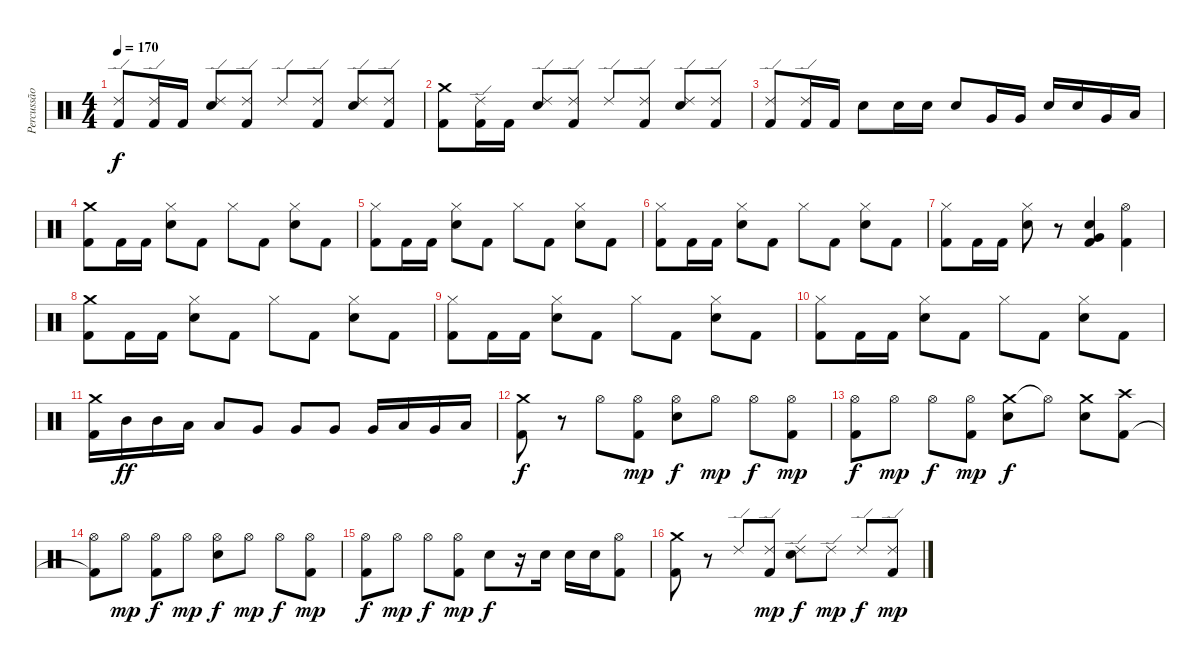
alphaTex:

\track ("Percussão" "Percussão") {instrument percussion}
\staff {score}
\articulation defaults
\ts (4 4)
\tempo 170
\clef neutral
\ks c
("Ride (edge) 2" "Kick (hit) 2").8{dy f} ("Ride (edge) 2" "Kick (hit) 2").16 "Kick (hit) 2".16 ("Ride (edge) 2" "Electric Snare (hit)").8 ("Ride (edge) 2" "Kick (hit) 2").8 "Ride (edge) 2".8 ("Ride (edge) 2" "Kick (hit) 2").8 ("Ride (edge) 2" "Electric Snare (hit)").8 ("Ride (edge) 2" "Kick (hit) 2").8 |
("Crash medium (hit)" "Kick (hit) 2").8 ("Ride (edge) 2" "Kick (hit) 2").16 "Kick (hit) 2".16 ("Ride (edge) 2" "Electric Snare (hit)").8 ("Ride (edge) 2" "Kick (hit) 2").8 "Ride (edge) 2".8 ("Ride (edge) 2" "Kick (hit) 2").8 ("Ride (edge) 2" "Electric Snare (hit)").8 ("Ride (edge) 2" "Kick (hit) 2").8 |
("Ride (edge) 2" "Kick (hit) 2").8 ("Ride (edge) 2" "Kick (hit) 2").16 "Kick (hit) 2".16 "Electric Snare (hit)".8 "Electric Snare (hit)".16 "Electric Snare (hit)".16 "Electric Snare (hit)".8 "Very Low Tom (hit)".16 "Very Low Tom (hit)".16 "Electric Snare (hit)".16 "Electric Snare (hit)".16 "Very Low Tom (hit)".16 "Low Floor Tom (hit)".16 |
("Crash medium (hit)" "Kick (hit) 2").8 "Kick (hit) 2".16 "Kick (hit) 2".16 ("Hi-Hat (closed)" "Electric Snare (hit)").8 "Kick (hit) 2".8 "Hi-Hat (closed)".8 "Kick (hit) 2".8 ("Hi-Hat (closed)" "Electric Snare (hit)").8 "Kick (hit) 2".8 |
("Hi-Hat (closed)" "Kick (hit) 2").8 "Kick (hit) 2".16 "Kick (hit) 2".16 ("Hi-Hat (closed)" "Electric Snare (hit)").8 "Kick (hit) 2".8 "Hi-Hat (closed)".8 "Kick (hit) 2".8 ("Hi-Hat (closed)" "Electric Snare (hit)").8 "Kick (hit) 2".8 |
("Hi-Hat (closed)" "Kick (hit) 2").8 "Kick (hit) 2".16 "Kick (hit) 2".16 ("Hi-Hat (closed)" "Electric Snare (hit)").8 "Kick (hit) 2".8 "Hi-Hat (closed)".8 "Kick (hit) 2".8 ("Hi-Hat (closed)" "Electric Snare (hit)").8 "Kick (hit) 2".8 |
("Hi-Hat (closed)" "Kick (hit) 2").8 "Kick (hit) 2".16 "Kick (hit) 2".16 ("Hi-Hat (closed)" "Electric Snare (hit)").8 r.8 ("Very Low Tom (hit)" "Electric Snare (hit)" "Kick (hit) 2").4 ("Hi-Hat (open)" "Kick (hit) 2").4 |
("Crash medium (hit)" "Kick (hit) 2").8 "Kick (hit) 2".16 "Kick (hit) 2".16 ("Hi-Hat (closed)" "Electric Snare (hit)").8 "Kick (hit) 2".8 "Hi-Hat (closed)".8 "Kick (hit) 2".8 ("Hi-Hat (closed)" "Electric Snare (hit)").8 "Kick (hit) 2".8 |
("Hi-Hat (closed)" "Kick (hit) 2").8 "Kick (hit) 2".16 "Kick (hit) 2".16 ("Hi-Hat (closed)" "Electric Snare (hit)").8 "Kick (hit) 2".8 "Hi-Hat (closed)".8 "Kick (hit) 2".8 ("Hi-Hat (closed)" "Electric Snare (hit)").8 "Kick (hit) 2".8 |
("Hi-Hat (closed)" "Kick (hit) 2").8 "Kick (hit) 2".16 "Kick (hit) 2".16 ("Hi-Hat (closed)" "Electric Snare (hit)").8 "Kick (hit) 2".8 "Hi-Hat (closed)".8 "Kick (hit) 2".8 ("Hi-Hat (closed)" "Electric Snare (hit)").8 "Kick (hit) 2".8 |
("Crash medium (hit)" "Kick (hit) 2").16 "Mid Tom (hit)".16{dy ff} "Mid Tom (hit)".16 "Low Tom (hit)".16 "Low Tom (hit)".8 "Very Low Tom (hit)".8 "Very Low Tom (hit)".8 "Very Low Tom (hit)".8 "Very Low Tom (hit)".16 "Low Tom (hit)".16 "Very Low Tom (hit)".16 "Low Floor Tom (hit)".16 |
("Crash medium (hit)" "Kick (hit) 2").8{dy f} r.8 "Hi-Hat (open)".8 ("Hi-Hat (open)" "Kick (hit) 2").8{dy mp} ("Hi-Hat (open)" "Electric Snare (hit)").8{dy f} "Hi-Hat (open)".8{dy mp} "Hi-Hat (open)".8{dy f} ("Hi-Hat (open)" "Kick (hit) 2").8{dy mp} |
("Hi-Hat (open)" "Kick (hit) 2").8{dy f} "Hi-Hat (open)".8{dy mp} "Hi-Hat (open)".8{dy f} ("Hi-Hat (open)" "Kick (hit) 2").8{dy mp} ("Crash medium (hit)" "Electric Snare (hit)").8{dy f} "Hi-Hat (open)"{t}.8 ("Crash medium (hit)" "Electric Snare (hit)").8 ("Crash high (hit)" "Kick (hit) 2").8 |
("Hi-Hat (open)" "Kick (hit) 2"{t}).8 "Hi-Hat (open)".8{dy mp} ("Hi-Hat (open)" "Kick (hit) 2").8{dy f} "Hi-Hat (open)".8{dy mp} ("Hi-Hat (open)" "Electric Snare (hit)").8{dy f} "Hi-Hat (open)".8{dy mp} "Hi-Hat (open)".8{dy f} ("Hi-Hat (open)" "Kick (hit) 2").8{dy mp} |
("Hi-Hat (open)" "Kick (hit) 2").8{dy f} "Hi-Hat (open)".8{dy mp} "Hi-Hat (open)".8{dy f} ("Hi-Hat (open)" "Kick (hit) 2").8{dy mp} "Electric Snare (hit)".8{dy f} r.16 "Electric Snare (hit)".16 "Electric Snare (hit)".16 "Electric Snare (hit)".16 ("Hi-Hat (open)" "Kick (hit) 2").8 |
("Crash medium (hit)" "Kick (hit) 2").8 r.8 "Ride (edge) 2".8 ("Ride (edge) 2" "Kick (hit) 2").8{dy mp} ("Ride (edge) 2" "Electric Snare (hit)").8{dy f} "Ride (edge) 2".8{dy mp} "Ride (edge) 2".8{dy f} ("Ride (edge) 2" "Kick (hit) 2").8{dy mp}
